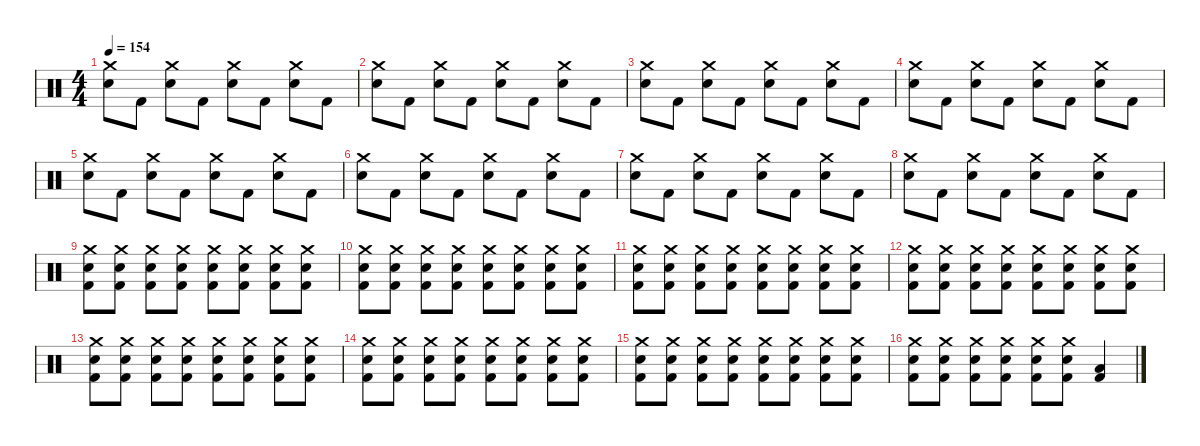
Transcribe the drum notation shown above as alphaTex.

\defaultSystemsLayout 4
\hideDynamics
\bracketExtendMode nobrackets
\singleTrackTrackNamePolicy hidden
\multiTrackTrackNamePolicy hidden
\firstSystemTrackNameMode fullname
\firstSystemTrackNameOrientation horizontal
\otherSystemsTrackNameOrientation horizontal
\track ("Percussie" "drm.") {instrument percussion}
\staff {score}
\articulation defaults
\ts (4 4)
\tempo 154
\clef neutral
\ks c
("Crash medium (hit)" "Snare (hit) 2").8{dy f beam Down} "Kick (hit) 2".8{beam Down} ("Crash medium (hit)" "Snare (hit) 2").8{beam Down} "Kick (hit) 2".8{beam Down} ("Crash medium (hit)" "Snare (hit) 2").8{beam Down} "Kick (hit) 2".8{beam Down} ("Crash medium (hit)" "Snare (hit) 2").8{beam Down} "Kick (hit) 2".8{beam Down} |
("Crash medium (hit)" "Snare (hit) 2").8{beam Down} "Kick (hit) 2".8{beam Down} ("Crash medium (hit)" "Snare (hit) 2").8{beam Down} "Kick (hit) 2".8{beam Down} ("Crash medium (hit)" "Snare (hit) 2").8{beam Down} "Kick (hit) 2".8{beam Down} ("Crash medium (hit)" "Snare (hit) 2").8{beam Down} "Kick (hit) 2".8{beam Down} |
("Crash medium (hit)" "Snare (hit) 2").8{beam Down} "Kick (hit) 2".8{beam Down} ("Crash medium (hit)" "Snare (hit) 2").8{beam Down} "Kick (hit) 2".8{beam Down} ("Crash medium (hit)" "Snare (hit) 2").8{beam Down} "Kick (hit) 2".8{beam Down} ("Crash medium (hit)" "Snare (hit) 2").8{beam Down} "Kick (hit) 2".8{beam Down} |
("Crash medium (hit)" "Snare (hit) 2").8{beam Down} "Kick (hit) 2".8{beam Down} ("Crash medium (hit)" "Snare (hit) 2").8{beam Down} "Kick (hit) 2".8{beam Down} ("Crash medium (hit)" "Snare (hit) 2").8{beam Down} "Kick (hit) 2".8{beam Down} ("Crash medium (hit)" "Snare (hit) 2").8{beam Down} "Kick (hit) 2".8{beam Down} |
("Crash medium (hit)" "Snare (hit) 2").8{beam Down} "Kick (hit) 2".8{beam Down} ("Crash medium (hit)" "Snare (hit) 2").8{beam Down} "Kick (hit) 2".8{beam Down} ("Crash medium (hit)" "Snare (hit) 2").8{beam Down} "Kick (hit) 2".8{beam Down} ("Crash medium (hit)" "Snare (hit) 2").8{beam Down} "Kick (hit) 2".8{beam Down} |
("Crash medium (hit)" "Snare (hit) 2").8{beam Down} "Kick (hit) 2".8{beam Down} ("Crash medium (hit)" "Snare (hit) 2").8{beam Down} "Kick (hit) 2".8{beam Down} ("Crash medium (hit)" "Snare (hit) 2").8{beam Down} "Kick (hit) 2".8{beam Down} ("Crash medium (hit)" "Snare (hit) 2").8{beam Down} "Kick (hit) 2".8{beam Down} |
("Crash medium (hit)" "Snare (hit) 2").8{beam Down} "Kick (hit) 2".8{beam Down} ("Crash medium (hit)" "Snare (hit) 2").8{beam Down} "Kick (hit) 2".8{beam Down} ("Crash medium (hit)" "Snare (hit) 2").8{beam Down} "Kick (hit) 2".8{beam Down} ("Crash medium (hit)" "Snare (hit) 2").8{beam Down} "Kick (hit) 2".8{beam Down} |
("Crash medium (hit)" "Snare (hit) 2").8{beam Down} "Kick (hit) 2".8{beam Down} ("Crash medium (hit)" "Snare (hit) 2").8{beam Down} "Kick (hit) 2".8{beam Down} ("Crash medium (hit)" "Snare (hit) 2").8{beam Down} "Kick (hit) 2".8{beam Down} ("Crash medium (hit)" "Snare (hit) 2").8{beam Down} "Kick (hit) 2".8{beam Down} |
("Crash medium (hit)" "Snare (hit) 2" "Kick (hit) 2").8{beam Down} ("Crash medium (hit)" "Snare (hit) 2" "Kick (hit) 2").8{beam Down} ("Crash medium (hit)" "Snare (hit) 2" "Kick (hit) 2").8{beam Down} ("Crash medium (hit)" "Snare (hit) 2" "Kick (hit) 2").8{beam Down} ("Crash medium (hit)" "Snare (hit) 2" "Kick (hit) 2").8{beam Down} ("Crash medium (hit)" "Snare (hit) 2" "Kick (hit) 2").8{beam Down} ("Crash medium (hit)" "Snare (hit) 2" "Kick (hit) 2").8{beam Down} ("Crash medium (hit)" "Snare (hit) 2" "Kick (hit) 2").8{beam Down} |
("Crash medium (hit)" "Snare (hit) 2" "Kick (hit) 2").8{beam Down} ("Crash medium (hit)" "Snare (hit) 2" "Kick (hit) 2").8{beam Down} ("Crash medium (hit)" "Snare (hit) 2" "Kick (hit) 2").8{beam Down} ("Crash medium (hit)" "Snare (hit) 2" "Kick (hit) 2").8{beam Down} ("Crash medium (hit)" "Snare (hit) 2" "Kick (hit) 2").8{beam Down} ("Crash medium (hit)" "Snare (hit) 2" "Kick (hit) 2").8{beam Down} ("Crash medium (hit)" "Snare (hit) 2" "Kick (hit) 2").8{beam Down} ("Crash medium (hit)" "Snare (hit) 2" "Kick (hit) 2").8{beam Down} |
("Crash medium (hit)" "Snare (hit) 2" "Kick (hit) 2").8{beam Down} ("Crash medium (hit)" "Snare (hit) 2" "Kick (hit) 2").8{beam Down} ("Crash medium (hit)" "Snare (hit) 2" "Kick (hit) 2").8{beam Down} ("Crash medium (hit)" "Snare (hit) 2" "Kick (hit) 2").8{beam Down} ("Crash medium (hit)" "Snare (hit) 2" "Kick (hit) 2").8{beam Down} ("Crash medium (hit)" "Snare (hit) 2" "Kick (hit) 2").8{beam Down} ("Crash medium (hit)" "Snare (hit) 2" "Kick (hit) 2").8{beam Down} ("Crash medium (hit)" "Snare (hit) 2" "Kick (hit) 2").8{beam Down} |
("Crash medium (hit)" "Snare (hit) 2" "Kick (hit) 2").8{beam Down} ("Crash medium (hit)" "Snare (hit) 2" "Kick (hit) 2").8{beam Down} ("Crash medium (hit)" "Snare (hit) 2" "Kick (hit) 2").8{beam Down} ("Crash medium (hit)" "Snare (hit) 2" "Kick (hit) 2").8{beam Down} ("Crash medium (hit)" "Snare (hit) 2" "Kick (hit) 2").8{beam Down} ("Crash medium (hit)" "Snare (hit) 2" "Kick (hit) 2").8{beam Down} ("Crash medium (hit)" "Snare (hit) 2" "Kick (hit) 2").8{beam Down} ("Crash medium (hit)" "Snare (hit) 2" "Kick (hit) 2").8{beam Down} |
("Crash medium (hit)" "Snare (hit) 2" "Kick (hit) 2").8{beam Down} ("Crash medium (hit)" "Snare (hit) 2" "Kick (hit) 2").8{beam Down} ("Crash medium (hit)" "Snare (hit) 2" "Kick (hit) 2").8{beam Down} ("Crash medium (hit)" "Snare (hit) 2" "Kick (hit) 2").8{beam Down} ("Crash medium (hit)" "Snare (hit) 2" "Kick (hit) 2").8{beam Down} ("Crash medium (hit)" "Snare (hit) 2" "Kick (hit) 2").8{beam Down} ("Crash medium (hit)" "Snare (hit) 2" "Kick (hit) 2").8{beam Down} ("Crash medium (hit)" "Snare (hit) 2" "Kick (hit) 2").8{beam Down} |
("Crash medium (hit)" "Snare (hit) 2" "Kick (hit) 2").8{beam Down} ("Crash medium (hit)" "Snare (hit) 2" "Kick (hit) 2").8{beam Down} ("Crash medium (hit)" "Snare (hit) 2" "Kick (hit) 2").8{beam Down} ("Crash medium (hit)" "Snare (hit) 2" "Kick (hit) 2").8{beam Down} ("Crash medium (hit)" "Snare (hit) 2" "Kick (hit) 2").8{beam Down} ("Crash medium (hit)" "Snare (hit) 2" "Kick (hit) 2").8{beam Down} ("Crash medium (hit)" "Snare (hit) 2" "Kick (hit) 2").8{beam Down} ("Crash medium (hit)" "Snare (hit) 2" "Kick (hit) 2").8{beam Down} |
("Crash medium (hit)" "Snare (hit) 2" "Kick (hit) 2").8{beam Down} ("Crash medium (hit)" "Snare (hit) 2" "Kick (hit) 2").8{beam Down} ("Crash medium (hit)" "Snare (hit) 2" "Kick (hit) 2").8{beam Down} ("Crash medium (hit)" "Snare (hit) 2" "Kick (hit) 2").8{beam Down} ("Crash medium (hit)" "Snare (hit) 2" "Kick (hit) 2").8{beam Down} ("Crash medium (hit)" "Snare (hit) 2" "Kick (hit) 2").8{beam Down} ("Crash medium (hit)" "Snare (hit) 2" "Kick (hit) 2").8{beam Down} ("Crash medium (hit)" "Snare (hit) 2" "Kick (hit) 2").8{beam Down} |
("Crash medium (hit)" "Snare (hit) 2" "Kick (hit) 2").8{beam Down} ("Crash medium (hit)" "Snare (hit) 2" "Kick (hit) 2").8{beam Down} ("Crash medium (hit)" "Snare (hit) 2" "Kick (hit) 2").8{beam Down} ("Crash medium (hit)" "Snare (hit) 2" "Kick (hit) 2").8{beam Down} ("Crash medium (hit)" "Snare (hit) 2" "Kick (hit) 2").8{beam Down} ("Crash medium (hit)" "Snare (hit) 2" "Kick (hit) 2").8{beam Down} ("Low Tom (hit)" "Kick (hit) 2").4{beam Up}
